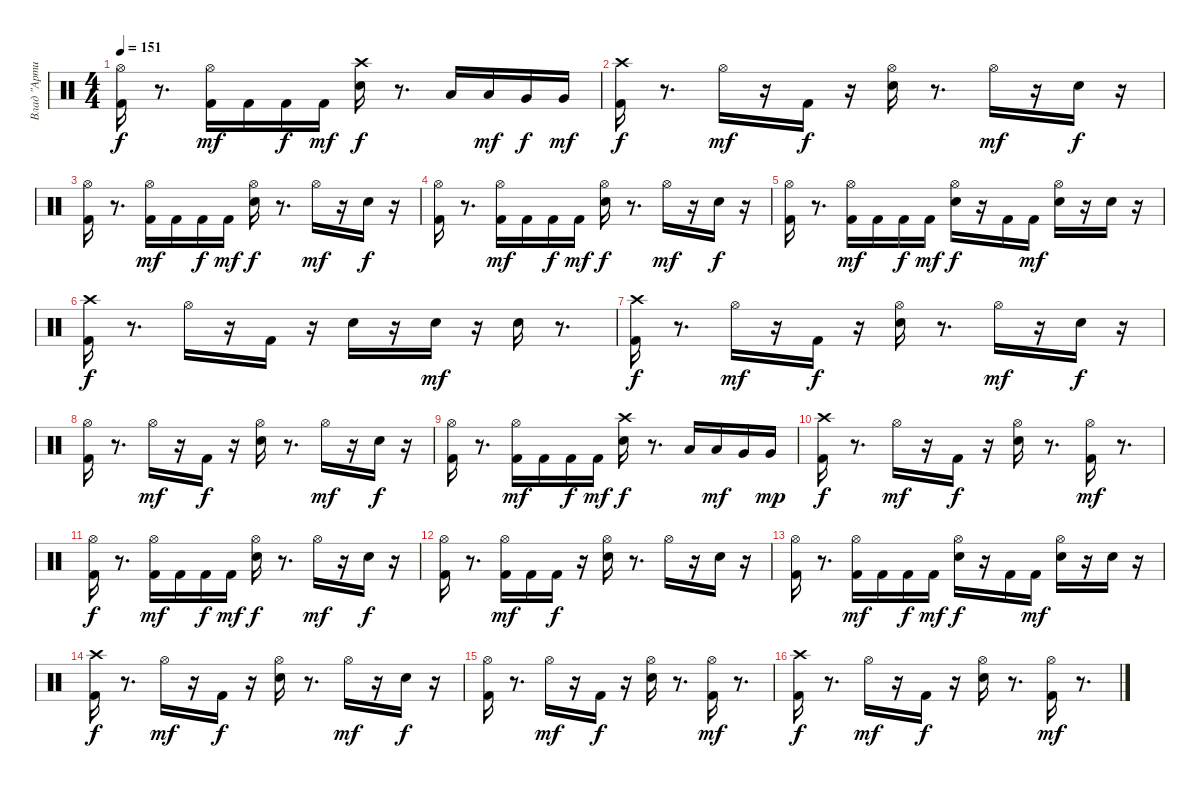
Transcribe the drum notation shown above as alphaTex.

\track ("Влад \"Артист\"" "Влад \"Арти") {instrument percussion}
\staff {score}
\articulation defaults
\ts (4 4)
\tempo 151
\clef neutral
\ks c
("Hi-Hat (open)" "Kick (hit) 2").16{dy f} r.8{d} ("Kick (hit) 2" "Hi-Hat (open)").16{dy mf} "Kick (hit) 2".16 "Kick (hit) 2".16{dy f} "Kick (hit) 2".16{dy mf} ("Snare (hit) 2" "Crash high (hit)").16{dy f} r.8{d} "Low Tom (hit)".16 "Low Tom (hit)".16{dy mf} "Very Low Tom (hit)".16{dy f} "Very Low Tom (hit)".16{dy mf} |
("Crash high (hit)" "Kick (hit) 2").16{dy f} r.8{d} "Hi-Hat (open)".16{dy mf} r.16 "Kick (hit) 2".16{dy f} r.16 ("Snare (hit) 2" "Hi-Hat (open)").16 r.8{d} "Hi-Hat (open)".16{dy mf} r.16 "Snare (hit) 2".16{dy f} r.16 |
("Kick (hit) 2" "Hi-Hat (open)").16 r.8{d} ("Hi-Hat (open)" "Kick (hit) 2").16{dy mf} "Kick (hit) 2".16 "Kick (hit) 2".16{dy f} "Kick (hit) 2".16{dy mf} ("Hi-Hat (open)" "Snare (hit) 2").16{dy f} r.8{d} "Hi-Hat (open)".16{dy mf} r.16 "Snare (hit) 2".16{dy f} r.16 |
("Hi-Hat (open)" "Kick (hit) 2").16 r.8{d} ("Hi-Hat (open)" "Kick (hit) 2").16{dy mf} "Kick (hit) 2".16 "Kick (hit) 2".16{dy f} "Kick (hit) 2".16{dy mf} ("Hi-Hat (open)" "Snare (hit) 2").16{dy f} r.8{d} "Hi-Hat (open)".16{dy mf} r.16 "Snare (hit) 2".16{dy f} r.16 |
("Kick (hit) 2" "Hi-Hat (open)").16 r.8{d} ("Hi-Hat (open)" "Kick (hit) 2").16{dy mf} "Kick (hit) 2".16 "Kick (hit) 2".16{dy f} "Kick (hit) 2".16{dy mf} ("Hi-Hat (open)" "Snare (hit) 2").16{dy f} r.16 "Kick (hit) 2".16 "Kick (hit) 2".16{dy mf} ("Hi-Hat (open)" "Snare (hit) 2").16 r.16 "Snare (hit) 2".16 r.16 |
("Kick (hit) 2" "Crash high (hit)").16{dy f} r.8{d} "Hi-Hat (open)".16 r.16 "Kick (hit) 2".16 r.16 "Snare (hit) 2".16 r.16 "Snare (hit) 2".16{dy mf} r.16 "Snare (hit) 2".16 r.8{d} |
("Crash high (hit)" "Kick (hit) 2").16{dy f} r.8{d} "Hi-Hat (open)".16{dy mf} r.16 "Kick (hit) 2".16{dy f} r.16 ("Snare (hit) 2" "Hi-Hat (open)").16 r.8{d} "Hi-Hat (open)".16{dy mf} r.16 "Snare (hit) 2".16{dy f} r.16 |
("Hi-Hat (open)" "Kick (hit) 2").16 r.8{d} "Hi-Hat (open)".16{dy mf} r.16 "Kick (hit) 2".16{dy f} r.16 ("Hi-Hat (open)" "Snare (hit) 2").16 r.8{d} "Hi-Hat (open)".16{dy mf} r.16 "Snare (hit) 2".16{dy f} r.16 |
("Hi-Hat (open)" "Kick (hit) 2").16 r.8{d} ("Kick (hit) 2" "Hi-Hat (open)").16{dy mf} "Kick (hit) 2".16 "Kick (hit) 2".16{dy f} "Kick (hit) 2".16{dy mf} ("Snare (hit) 2" "Crash high (hit)").16{dy f} r.8{d} "Low Tom (hit)".16 "Low Tom (hit)".16{dy mf} "Very Low Tom (hit)".16 "Very Low Tom (hit)".16{dy mp} |
("Kick (hit) 2" "Crash high (hit)").16{dy f} r.8{d} "Hi-Hat (open)".16{dy mf} r.16 "Kick (hit) 2".16{dy f} r.16 ("Snare (hit) 2" "Hi-Hat (open)").16 r.8{d} ("Hi-Hat (open)" "Kick (hit) 2").16{dy mf} r.8{d} |
("Kick (hit) 2" "Hi-Hat (open)").16{dy f} r.8{d} ("Hi-Hat (open)" "Kick (hit) 2").16{dy mf} "Kick (hit) 2".16 "Kick (hit) 2".16{dy f} "Kick (hit) 2".16{dy mf} ("Hi-Hat (open)" "Snare (hit) 2").16{dy f} r.8{d} "Hi-Hat (open)".16{dy mf} r.16 "Snare (hit) 2".16{dy f} r.16 |
("Hi-Hat (open)" "Kick (hit) 2").16 r.8{d} ("Hi-Hat (open)" "Kick (hit) 2").16{dy mf} "Kick (hit) 2".16 "Kick (hit) 2".16{dy f} r.16 ("Hi-Hat (open)" "Snare (hit) 2").16 r.8{d} "Hi-Hat (open)".16 r.16 "Snare (hit) 2".16 r.16 |
("Kick (hit) 2" "Hi-Hat (open)").16 r.8{d} ("Hi-Hat (open)" "Kick (hit) 2").16{dy mf} "Kick (hit) 2".16 "Kick (hit) 2".16{dy f} "Kick (hit) 2".16{dy mf} ("Hi-Hat (open)" "Snare (hit) 2").16{dy f} r.16 "Kick (hit) 2".16 "Kick (hit) 2".16{dy mf} ("Hi-Hat (open)" "Snare (hit) 2").16 r.16 "Snare (hit) 2".16 r.16 |
("Kick (hit) 2" "Crash high (hit)").16{dy f} r.8{d} "Hi-Hat (open)".16{dy mf} r.16 "Kick (hit) 2".16{dy f} r.16 ("Snare (hit) 2" "Hi-Hat (open)").16 r.8{d} "Hi-Hat (open)".16{dy mf} r.16 "Snare (hit) 2".16{dy f} r.16 |
("Kick (hit) 2" "Hi-Hat (open)").16 r.8{d} "Hi-Hat (open)".16{dy mf} r.16 "Kick (hit) 2".16{dy f} r.16 ("Snare (hit) 2" "Hi-Hat (open)").16 r.8{d} ("Hi-Hat (open)" "Kick (hit) 2").16{dy mf} r.8{d} |
("Crash high (hit)" "Kick (hit) 2").16{dy f} r.8{d} "Hi-Hat (open)".16{dy mf} r.16 "Kick (hit) 2".16{dy f} r.16 ("Hi-Hat (open)" "Snare (hit) 2").16 r.8{d} ("Hi-Hat (open)" "Kick (hit) 2").16{dy mf} r.8{d}
